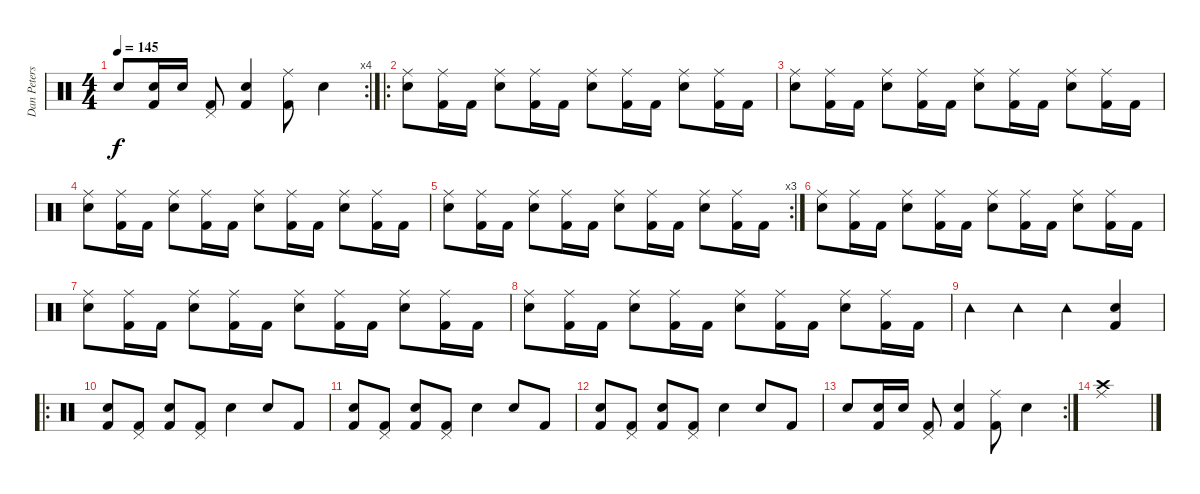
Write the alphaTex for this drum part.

\track ("Dan Peters-Drums" "Dan Peters") {instrument percussion}
\staff {score}
\articulation defaults
\rc 4
\ts (4 4)
\tempo 145
\clef neutral
\ks c "Electric Snare (hit)".8{dy f}
("Kick (hit) 2" "Electric Snare (hit)").16 "Electric Snare (hit)".16 ("Kick (hit) 2" "Pedal Hi-Hat (hit)").8 ("Electric Snare (hit)" "Kick (hit) 2").4 ("Kick (hit) 2" "Ride (middle)").8 "Electric Snare (hit)".4 |
\ro
("Electric Snare (hit)" "Ride (middle)").8 ("Kick (hit) 2" "Ride (middle)").16 "Kick (hit) 2".16 ("Electric Snare (hit)" "Ride (middle)").8 ("Kick (hit) 2" "Ride (middle)").16 "Kick (hit) 2".16 ("Electric Snare (hit)" "Ride (middle)").8 ("Kick (hit) 2" "Ride (middle)").16 "Kick (hit) 2".16 ("Electric Snare (hit)" "Ride (middle)").8 ("Kick (hit) 2" "Ride (middle)").16 "Kick (hit) 2".16 |
("Electric Snare (hit)" "Ride (middle)").8 ("Kick (hit) 2" "Ride (middle)").16 "Kick (hit) 2".16 ("Electric Snare (hit)" "Ride (middle)").8 ("Kick (hit) 2" "Ride (middle)").16 "Kick (hit) 2".16 ("Electric Snare (hit)" "Ride (middle)").8 ("Kick (hit) 2" "Ride (middle)").16 "Kick (hit) 2".16 ("Electric Snare (hit)" "Ride (middle)").8 ("Kick (hit) 2" "Ride (middle)").16 "Kick (hit) 2".16 |
("Electric Snare (hit)" "Ride (middle)").8 ("Kick (hit) 2" "Ride (middle)").16 "Kick (hit) 2".16 ("Electric Snare (hit)" "Ride (middle)").8 ("Kick (hit) 2" "Ride (middle)").16 "Kick (hit) 2".16 ("Electric Snare (hit)" "Ride (middle)").8 ("Kick (hit) 2" "Ride (middle)").16 "Kick (hit) 2".16 ("Electric Snare (hit)" "Ride (middle)").8 ("Kick (hit) 2" "Ride (middle)").16 "Kick (hit) 2".16 |
\rc 3
("Electric Snare (hit)" "Ride (middle)").8 ("Kick (hit) 2" "Ride (middle)").16 "Kick (hit) 2".16 ("Electric Snare (hit)" "Ride (middle)").8 ("Kick (hit) 2" "Ride (middle)").16 "Kick (hit) 2".16 ("Electric Snare (hit)" "Ride (middle)").8 ("Kick (hit) 2" "Ride (middle)").16 "Kick (hit) 2".16 ("Electric Snare (hit)" "Ride (middle)").8 ("Kick (hit) 2" "Ride (middle)").16 "Kick (hit) 2".16 |
("Electric Snare (hit)" "Ride (middle)").8 ("Kick (hit) 2" "Ride (middle)").16 "Kick (hit) 2".16 ("Electric Snare (hit)" "Ride (middle)").8 ("Kick (hit) 2" "Ride (middle)").16 "Kick (hit) 2".16 ("Electric Snare (hit)" "Ride (middle)").8 ("Kick (hit) 2" "Ride (middle)").16 "Kick (hit) 2".16 ("Electric Snare (hit)" "Ride (middle)").8 ("Kick (hit) 2" "Ride (middle)").16 "Kick (hit) 2".16 |
("Electric Snare (hit)" "Ride (middle)").8 ("Kick (hit) 2" "Ride (middle)").16 "Kick (hit) 2".16 ("Electric Snare (hit)" "Ride (middle)").8 ("Kick (hit) 2" "Ride (middle)").16 "Kick (hit) 2".16 ("Electric Snare (hit)" "Ride (middle)").8 ("Kick (hit) 2" "Ride (middle)").16 "Kick (hit) 2".16 ("Electric Snare (hit)" "Ride (middle)").8 ("Kick (hit) 2" "Ride (middle)").16 "Kick (hit) 2".16 |
("Electric Snare (hit)" "Ride (middle)").8 ("Kick (hit) 2" "Ride (middle)").16 "Kick (hit) 2".16 ("Electric Snare (hit)" "Ride (middle)").8 ("Kick (hit) 2" "Ride (middle)").16 "Kick (hit) 2".16 ("Electric Snare (hit)" "Ride (middle)").8 ("Kick (hit) 2" "Ride (middle)").16 "Kick (hit) 2".16 ("Electric Snare (hit)" "Ride (middle)").8 ("Kick (hit) 2" "Ride (middle)").16 "Kick (hit) 2".16 |
"Tambourine (hit)".4 "Tambourine (hit)".4 "Tambourine (hit)".4 ("Electric Snare (hit)" "Kick (hit) 2").4 |
\ro
("Electric Snare (hit)" "Kick (hit) 2").8 ("Kick (hit) 2" "Pedal Hi-Hat (hit)").8 ("Electric Snare (hit)" "Kick (hit) 2").8 ("Kick (hit) 2" "Pedal Hi-Hat (hit)").8 "Electric Snare (hit)".4 "Electric Snare (hit)".8 "Kick (hit) 2".8 |
("Electric Snare (hit)" "Kick (hit) 2").8 ("Kick (hit) 2" "Pedal Hi-Hat (hit)").8 ("Electric Snare (hit)" "Kick (hit) 2").8 ("Pedal Hi-Hat (hit)" "Kick (hit) 2").8 "Electric Snare (hit)".4 "Electric Snare (hit)".8 "Kick (hit) 2".8 |
("Electric Snare (hit)" "Kick (hit) 2").8 ("Kick (hit) 2" "Pedal Hi-Hat (hit)").8 ("Electric Snare (hit)" "Kick (hit) 2").8 ("Kick (hit) 2" "Pedal Hi-Hat (hit)").8 "Electric Snare (hit)".4 "Electric Snare (hit)".8 "Kick (hit) 2".8 |
\rc 2 "Electric Snare (hit)".8
("Kick (hit) 2" "Electric Snare (hit)").16 "Electric Snare (hit)".16 ("Kick (hit) 2" "Pedal Hi-Hat (hit)").8 ("Electric Snare (hit)" "Kick (hit) 2").4 ("Kick (hit) 2" "Ride (middle)").8 "Electric Snare (hit)".4 |
("Ride (middle)" "Crash high (hit)").1
